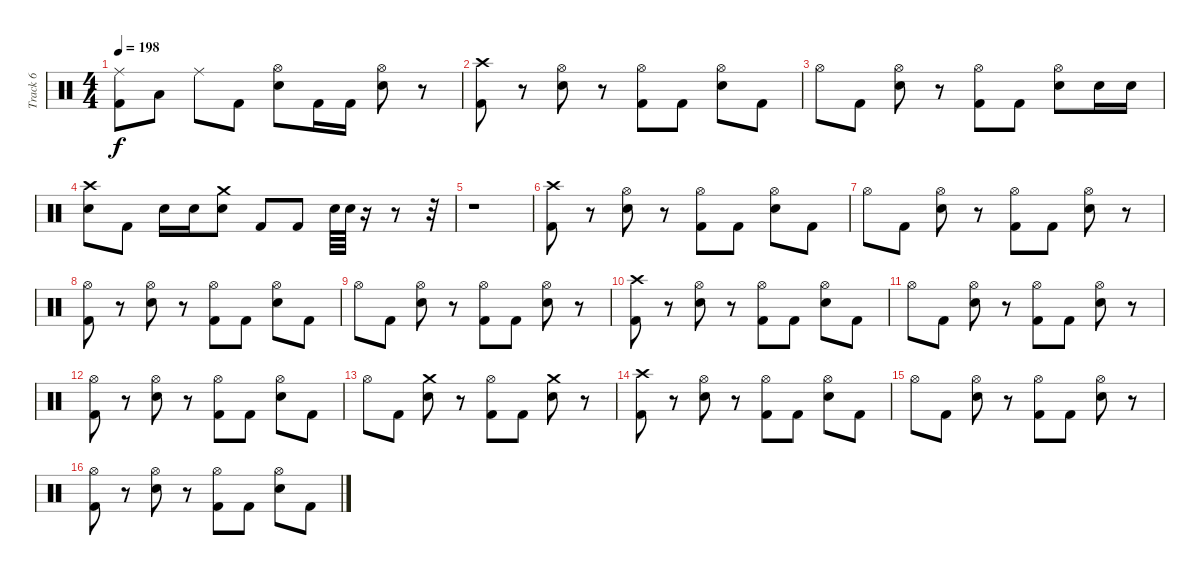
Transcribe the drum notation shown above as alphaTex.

\track ("Track 6" "Track 6") {instrument percussion}
\staff {score}
\articulation defaults
\ts (4 4)
\tempo 198
\clef neutral
\ks c
("Ride (middle)" "Kick (hit) 2").8{dy f} "Low Tom (hit)".8 "Ride (middle)".8 "Kick (hit) 2".8 ("Hi-Hat (open)" "Electric Snare (hit)").8 "Kick (hit) 2".16 "Kick (hit) 2".16 ("Hi-Hat (open)" "Electric Snare (hit)").8 r.8 |
("Crash high (hit)" "Kick (hit) 2").8 r.8 ("Hi-Hat (open)" "Electric Snare (hit)").8 r.8 ("Hi-Hat (open)" "Kick (hit) 2").8 "Kick (hit) 2".8 ("Hi-Hat (open)" "Electric Snare (hit)").8 "Kick (hit) 2".8 |
"Hi-Hat (open)".8 "Kick (hit) 2".8 ("Hi-Hat (open)" "Electric Snare (hit)").8 r.8 ("Hi-Hat (open)" "Kick (hit) 2").8 "Kick (hit) 2".8 ("Hi-Hat (open)" "Electric Snare (hit)").8 "Electric Snare (hit)".16 "Electric Snare (hit)".16 |
("Crash high (hit)" "Electric Snare (hit)").8 "Kick (hit) 2".8 "Electric Snare (hit)".16 "Electric Snare (hit)".16 ("Crash medium (hit)" "Electric Snare (hit)").8 "Kick (hit) 2".8 "Kick (hit) 2".8 "Electric Snare (hit)".64 "Electric Snare (hit)".64 r.16 r.8 r.32 |
r.1 |
("Crash high (hit)" "Kick (hit) 2").8 r.8 ("Hi-Hat (open)" "Electric Snare (hit)").8 r.8 ("Hi-Hat (open)" "Kick (hit) 2").8 "Kick (hit) 2".8 ("Hi-Hat (open)" "Electric Snare (hit)").8 "Kick (hit) 2".8 |
"Hi-Hat (open)".8 "Kick (hit) 2".8 ("Hi-Hat (open)" "Electric Snare (hit)").8 r.8 ("Hi-Hat (open)" "Kick (hit) 2").8 "Kick (hit) 2".8 ("Hi-Hat (open)" "Electric Snare (hit)").8 r.8 |
("Hi-Hat (open)" "Kick (hit) 2").8 r.8 ("Hi-Hat (open)" "Electric Snare (hit)").8 r.8 ("Hi-Hat (open)" "Kick (hit) 2").8 "Kick (hit) 2".8 ("Hi-Hat (open)" "Electric Snare (hit)").8 "Kick (hit) 2".8 |
"Hi-Hat (open)".8 "Kick (hit) 2".8 ("Hi-Hat (open)" "Electric Snare (hit)").8 r.8 ("Hi-Hat (open)" "Kick (hit) 2").8 "Kick (hit) 2".8 ("Hi-Hat (open)" "Electric Snare (hit)").8 r.8 |
("Crash high (hit)" "Kick (hit) 2").8 r.8 ("Hi-Hat (open)" "Electric Snare (hit)").8 r.8 ("Hi-Hat (open)" "Kick (hit) 2").8 "Kick (hit) 2".8 ("Hi-Hat (open)" "Electric Snare (hit)").8 "Kick (hit) 2".8 |
"Hi-Hat (open)".8 "Kick (hit) 2".8 ("Hi-Hat (open)" "Electric Snare (hit)").8 r.8 ("Hi-Hat (open)" "Kick (hit) 2").8 "Kick (hit) 2".8 ("Hi-Hat (open)" "Electric Snare (hit)").8 r.8 |
("Hi-Hat (open)" "Kick (hit) 2").8 r.8 ("Hi-Hat (open)" "Electric Snare (hit)").8 r.8 ("Hi-Hat (open)" "Kick (hit) 2").8 "Kick (hit) 2".8 ("Hi-Hat (open)" "Electric Snare (hit)").8 "Kick (hit) 2".8 |
"Hi-Hat (open)".8 "Kick (hit) 2".8 ("Crash medium (hit)" "Electric Snare (hit)").8 r.8 ("Hi-Hat (open)" "Kick (hit) 2").8 "Kick (hit) 2".8 ("Crash medium (hit)" "Electric Snare (hit)").8 r.8 |
("Crash high (hit)" "Kick (hit) 2").8 r.8 ("Hi-Hat (open)" "Electric Snare (hit)").8 r.8 ("Hi-Hat (open)" "Kick (hit) 2").8 "Kick (hit) 2".8 ("Hi-Hat (open)" "Electric Snare (hit)").8 "Kick (hit) 2".8 |
"Hi-Hat (open)".8 "Kick (hit) 2".8 ("Hi-Hat (open)" "Electric Snare (hit)").8 r.8 ("Hi-Hat (open)" "Kick (hit) 2").8 "Kick (hit) 2".8 ("Hi-Hat (open)" "Electric Snare (hit)").8 r.8 |
("Hi-Hat (open)" "Kick (hit) 2").8 r.8 ("Hi-Hat (open)" "Electric Snare (hit)").8 r.8 ("Hi-Hat (open)" "Kick (hit) 2").8 "Kick (hit) 2".8 ("Hi-Hat (open)" "Electric Snare (hit)").8 "Kick (hit) 2".8
